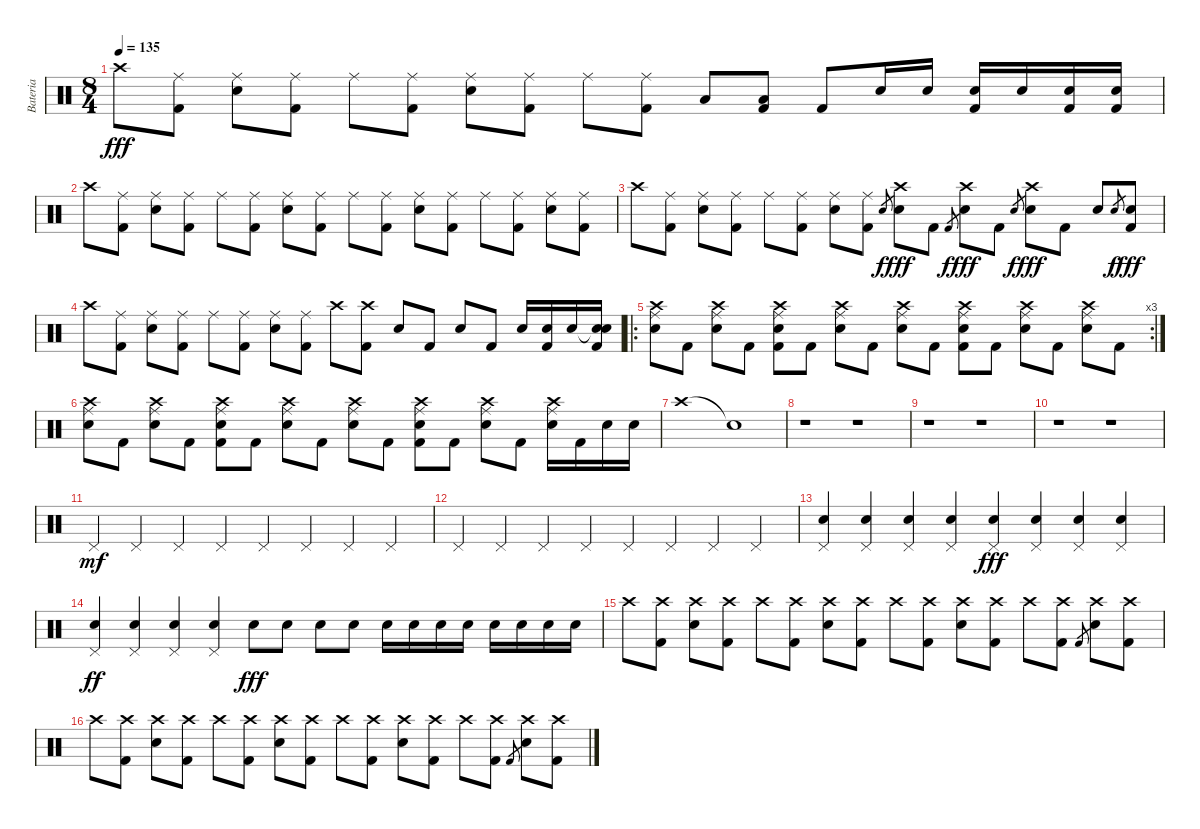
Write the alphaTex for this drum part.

\track ("Bateria" "Bateria") {instrument percussion}
\staff {score}
\articulation defaults
\ts (8 4)
\tempo 135
\clef neutral
\ks c "Crash high (hit)".8{dy fff}
("Ride (middle)" "Kick (hit) 2").8 ("Ride (middle)" "Electric Snare (hit)").8 ("Ride (middle)" "Kick (hit) 2").8 "Ride (middle)".8 ("Ride (middle)" "Kick (hit) 2").8 ("Ride (middle)" "Electric Snare (hit)").8 ("Ride (middle)" "Kick (hit) 2").8 "Ride (middle)".8 ("Ride (middle)" "Kick (hit) 2").8 "Low Tom (hit)".8 ("Low Tom (hit)" "Kick (hit) 2").8 "Kick (hit) 2".8 "Electric Snare (hit)".16 "Electric Snare (hit)".16 ("Electric Snare (hit)" "Kick (hit) 2").16 "Electric Snare (hit)".16 ("Electric Snare (hit)" "Kick (hit) 2").16 ("Electric Snare (hit)" "Kick (hit) 2").16 |
"Crash high (hit)".8 ("Ride (middle)" "Kick (hit) 2").8 ("Ride (middle)" "Electric Snare (hit)").8 ("Ride (middle)" "Kick (hit) 2").8 "Ride (middle)".8 ("Ride (middle)" "Kick (hit) 2").8 ("Ride (middle)" "Electric Snare (hit)").8 ("Ride (middle)" "Kick (hit) 2").8 "Ride (middle)".8 ("Ride (middle)" "Kick (hit) 2").8 ("Ride (middle)" "Electric Snare (hit)").8 ("Ride (middle)" "Kick (hit) 2").8 "Ride (middle)".8 ("Ride (middle)" "Kick (hit) 2").8 ("Ride (middle)" "Electric Snare (hit)").8 ("Ride (middle)" "Kick (hit) 2").8 |
"Crash high (hit)".8 ("Ride (middle)" "Kick (hit) 2").8 ("Ride (middle)" "Electric Snare (hit)").8 ("Ride (middle)" "Kick (hit) 2").8 "Ride (middle)".8 ("Ride (middle)" "Kick (hit) 2").8 ("Ride (middle)" "Electric Snare (hit)").8 ("Ride (middle)" "Kick (hit) 2").8 "Electric Snare (hit)".8{gr dy f} ("Crash high (hit)" "Electric Snare (hit)").8{dy fff} "Kick (hit) 2".8 "Kick (hit) 2".8{gr dy f} ("Crash high (hit)" "Electric Snare (hit)").8{dy fff} "Kick (hit) 2".8 "Electric Snare (hit)".8{gr dy f} ("Crash high (hit)" "Electric Snare (hit)").8{dy fff} "Kick (hit) 2".8 "Electric Snare (hit)".8 "Electric Snare (hit)".8{gr dy f} ("Electric Snare (hit)" "Kick (hit) 2").8{dy fff} |
"Crash high (hit)".8 ("Ride (middle)" "Kick (hit) 2").8 ("Ride (middle)" "Electric Snare (hit)").8 ("Ride (middle)" "Kick (hit) 2").8 "Ride (middle)".8 ("Ride (middle)" "Kick (hit) 2").8 ("Ride (middle)" "Electric Snare (hit)").8 ("Ride (middle)" "Kick (hit) 2").8 "Crash high (hit)".8 ("Crash high (hit)" "Kick (hit) 2").8 "Electric Snare (hit)".8 "Kick (hit) 2".8 "Electric Snare (hit)".8 "Kick (hit) 2".8 "Electric Snare (hit)".16 ("Electric Snare (hit)" "Kick (hit) 2").16 "Electric Snare (hit)".16 ("Snare (hit)"{t} "Electric Snare (hit)" "Kick (hit) 2").16 |
\ro
\rc 3
("Ride (middle)" "Crash high (hit)" "Electric Snare (hit)").8 "Kick (hit) 2".8 ("Ride (middle)" "Crash high (hit)" "Electric Snare (hit)").8 "Kick (hit) 2".8 ("Ride (middle)" "Crash high (hit)" "Electric Snare (hit)" "Kick (hit) 2").8 "Kick (hit) 2".8 ("Ride (middle)" "Crash high (hit)" "Electric Snare (hit)").8 "Kick (hit) 2".8 ("Ride (middle)" "Crash high (hit)" "Electric Snare (hit)").8 "Kick (hit) 2".8 ("Ride (middle)" "Crash high (hit)" "Electric Snare (hit)" "Kick (hit) 2").8 "Kick (hit) 2".8 ("Ride (middle)" "Crash high (hit)" "Electric Snare (hit)").8 "Kick (hit) 2".8 ("Ride (middle)" "Crash high (hit)" "Electric Snare (hit)").8 "Kick (hit) 2".8 |
("Ride (middle)" "Crash high (hit)" "Electric Snare (hit)").8 "Kick (hit) 2".8 ("Ride (middle)" "Crash high (hit)" "Electric Snare (hit)").8 "Kick (hit) 2".8 ("Ride (middle)" "Crash high (hit)" "Electric Snare (hit)" "Kick (hit) 2").8 "Kick (hit) 2".8 ("Ride (middle)" "Crash high (hit)" "Electric Snare (hit)").8 "Kick (hit) 2".8 ("Ride (middle)" "Crash high (hit)" "Electric Snare (hit)").8 "Kick (hit) 2".8 ("Ride (middle)" "Crash high (hit)" "Electric Snare (hit)" "Kick (hit) 2").8 "Kick (hit) 2".8 ("Ride (middle)" "Crash high (hit)" "Electric Snare (hit)").8 "Kick (hit) 2".8 ("Ride (middle)" "Crash high (hit)" "Electric Snare (hit)").16 "Kick (hit) 2".16 "Electric Snare (hit)".16 "Electric Snare (hit)".16 |
"Crash high (hit)".1 "Snare (hit)"{t}.1 |
r.1 r.1 |
r.1 r.1 |
r.1 r.1 |
"Pedal Hi-Hat (hit)".4{dy mf} "Pedal Hi-Hat (hit)".4 "Pedal Hi-Hat (hit)".4 "Pedal Hi-Hat (hit)".4 "Pedal Hi-Hat (hit)".4 "Pedal Hi-Hat (hit)".4 "Pedal Hi-Hat (hit)".4 "Pedal Hi-Hat (hit)".4 |
"Pedal Hi-Hat (hit)".4 "Pedal Hi-Hat (hit)".4 "Pedal Hi-Hat (hit)".4 "Pedal Hi-Hat (hit)".4 "Pedal Hi-Hat (hit)".4 "Pedal Hi-Hat (hit)".4 "Pedal Hi-Hat (hit)".4 "Pedal Hi-Hat (hit)".4 |
("Pedal Hi-Hat (hit)" "Electric Snare (hit)").4 ("Pedal Hi-Hat (hit)" "Electric Snare (hit)").4 ("Pedal Hi-Hat (hit)" "Electric Snare (hit)").4 ("Pedal Hi-Hat (hit)" "Electric Snare (hit)").4 ("Pedal Hi-Hat (hit)" "Electric Snare (hit)").4{dy fff} ("Pedal Hi-Hat (hit)" "Electric Snare (hit)").4 ("Pedal Hi-Hat (hit)" "Electric Snare (hit)").4 ("Pedal Hi-Hat (hit)" "Electric Snare (hit)").4 |
("Pedal Hi-Hat (hit)" "Electric Snare (hit)").4{dy ff} ("Pedal Hi-Hat (hit)" "Electric Snare (hit)").4 ("Pedal Hi-Hat (hit)" "Electric Snare (hit)").4 ("Pedal Hi-Hat (hit)" "Electric Snare (hit)").4 "Electric Snare (hit)".8{dy fff} "Electric Snare (hit)".8 "Electric Snare (hit)".8 "Electric Snare (hit)".8 "Electric Snare (hit)".16 "Electric Snare (hit)".16 "Electric Snare (hit)".16 "Electric Snare (hit)".16 "Electric Snare (hit)".16 "Electric Snare (hit)".16 "Electric Snare (hit)".16 "Electric Snare (hit)".16 |
"Crash high (hit)".8 ("Crash high (hit)" "Kick (hit) 2").8 ("Crash high (hit)" "Electric Snare (hit)").8 ("Crash high (hit)" "Kick (hit) 2").8 "Crash high (hit)".8 ("Crash high (hit)" "Kick (hit) 2").8 ("Crash high (hit)" "Electric Snare (hit)").8 ("Crash high (hit)" "Kick (hit) 2").8 "Crash high (hit)".8 ("Crash high (hit)" "Kick (hit) 2").8 ("Crash high (hit)" "Electric Snare (hit)").8 ("Crash high (hit)" "Kick (hit) 2").8 "Crash high (hit)".8 ("Crash high (hit)" "Kick (hit) 2").8 "Kick (hit) 2".8{gr} ("Crash high (hit)" "Electric Snare (hit)").8 ("Crash high (hit)" "Kick (hit) 2").8 |
"Crash high (hit)".8 ("Crash high (hit)" "Kick (hit) 2").8 ("Crash high (hit)" "Electric Snare (hit)").8 ("Crash high (hit)" "Kick (hit) 2").8 "Crash high (hit)".8 ("Crash high (hit)" "Kick (hit) 2").8 ("Crash high (hit)" "Electric Snare (hit)").8 ("Crash high (hit)" "Kick (hit) 2").8 "Crash high (hit)".8 ("Crash high (hit)" "Kick (hit) 2").8 ("Crash high (hit)" "Electric Snare (hit)").8 ("Crash high (hit)" "Kick (hit) 2").8 "Crash high (hit)".8 ("Crash high (hit)" "Kick (hit) 2").8 "Kick (hit) 2".8{gr} ("Crash high (hit)" "Electric Snare (hit)").8 ("Crash high (hit)" "Kick (hit) 2").8
